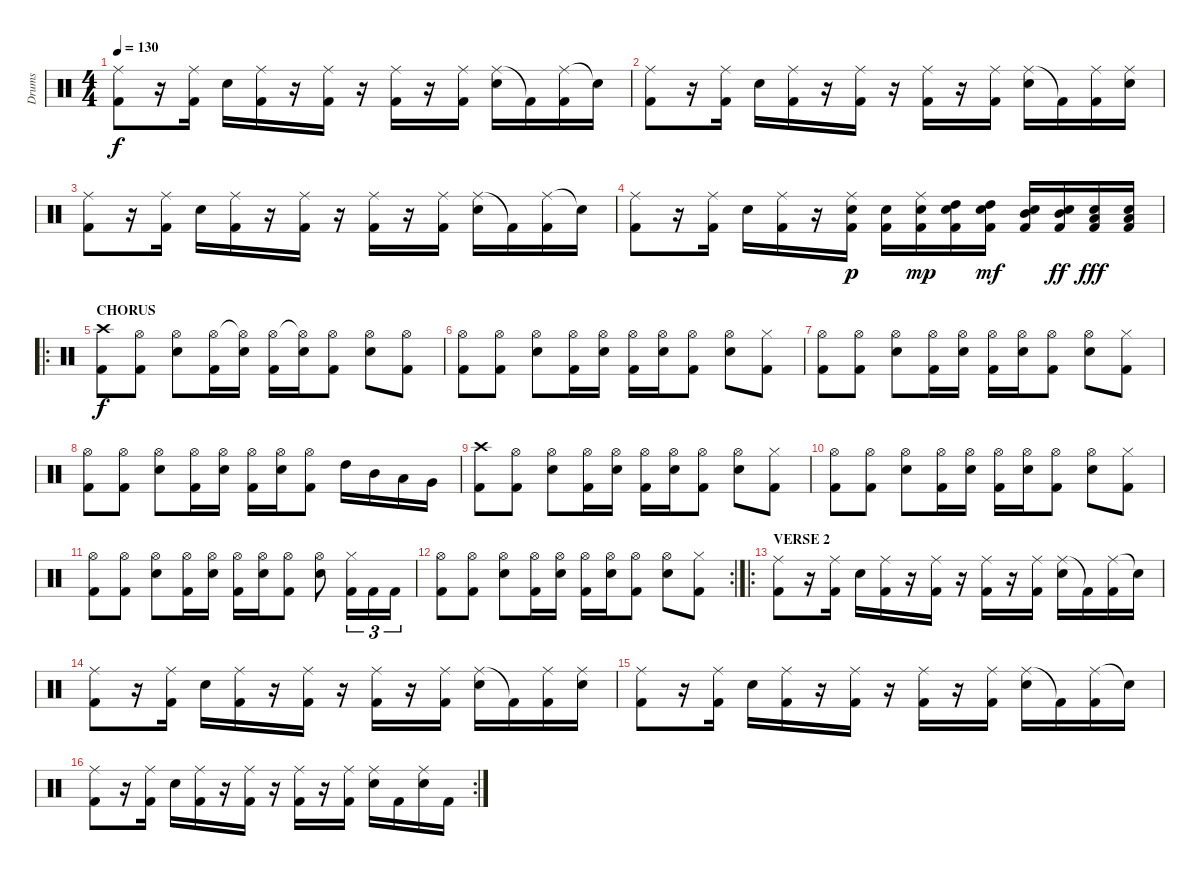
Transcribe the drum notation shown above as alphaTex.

\track ("Drums" "Drums") {instrument percussion}
\staff {score}
\articulation defaults
\ts (4 4)
\tempo 130
\clef neutral
\ks c
("Ride (middle)" "Kick (hit) 2").8{dy f} r.16 ("Ride (middle)" "Kick (hit) 2").16 "Electric Snare (hit)".16 ("Ride (middle)" "Kick (hit) 2").16 r.16 ("Ride (middle)" "Kick (hit) 2").16 r.16 ("Ride (middle)" "Kick (hit) 2").16 r.16 ("Ride (middle)" "Kick (hit) 2").16 ("Ride (middle)" "Electric Snare (hit)").16 "Kick (hit) 2"{t}.16 ("Ride (middle)" "Kick (hit) 2").16 "Snare (hit)"{t}.16 |
("Ride (middle)" "Kick (hit) 2").8 r.16 ("Ride (middle)" "Kick (hit) 2").16 "Electric Snare (hit)".16 ("Ride (middle)" "Kick (hit) 2").16 r.16 ("Ride (middle)" "Kick (hit) 2").16 r.16 ("Ride (middle)" "Kick (hit) 2").16 r.16 ("Ride (middle)" "Kick (hit) 2").16 ("Ride (middle)" "Electric Snare (hit)").16 "Kick (hit) 2"{t}.16 ("Ride (middle)" "Kick (hit) 2").16 ("Ride (middle)" "Electric Snare (hit)").16 |
("Ride (middle)" "Kick (hit) 2").8 r.16 ("Ride (middle)" "Kick (hit) 2").16 "Electric Snare (hit)".16 ("Ride (middle)" "Kick (hit) 2").16 r.16 ("Ride (middle)" "Kick (hit) 2").16 r.16 ("Ride (middle)" "Kick (hit) 2").16 r.16 ("Ride (middle)" "Kick (hit) 2").16 ("Ride (middle)" "Electric Snare (hit)").16 "Kick (hit) 2"{t}.16 ("Ride (middle)" "Kick (hit) 2").16 "Snare (hit)"{t}.16 |
("Ride (middle)" "Kick (hit) 2").8 r.16 ("Ride (middle)" "Kick (hit) 2").16 "Electric Snare (hit)".16 ("Ride (middle)" "Kick (hit) 2").16 r.16 ("Ride (middle)" "Electric Snare (hit)" "Kick (hit) 2").16{dy p} ("Electric Snare (hit)" "Kick (hit) 2").16 ("Ride (middle)" "Electric Snare (hit)" "Kick (hit) 2").16{dy mp} ("High Tom (hit)" "Electric Snare (hit)" "Kick (hit) 2").16 ("High Tom (hit)" "Electric Snare (hit)" "Kick (hit) 2").16{dy mf} ("Mid Tom (hit)" "Electric Snare (hit)" "Kick (hit) 2").16 ("Mid Tom (hit)" "Electric Snare (hit)" "Kick (hit) 2").16{dy ff} ("Low Tom (hit)" "Electric Snare (hit)" "Kick (hit) 2").16{dy fff} ("Low Tom (hit)" "Electric Snare (hit)" "Kick (hit) 2").16 |
\ro
\section ("" "CHORUS")
("Crash high (hit)" "Kick (hit) 2").8{dy f} ("Hi-Hat (open)" "Kick (hit) 2").8 ("Hi-Hat (open)" "Electric Snare (hit)").8 ("Hi-Hat (open)" "Kick (hit) 2").16 ("Hi-Hat (open)"{t} "Electric Snare (hit)").16 ("Hi-Hat (open)" "Kick (hit) 2").16 ("Hi-Hat (open)"{t} "Electric Snare (hit)").16 ("Hi-Hat (open)" "Kick (hit) 2").8 ("Hi-Hat (open)" "Electric Snare (hit)").8 ("Hi-Hat (open)" "Kick (hit) 2").8 |
("Hi-Hat (open)" "Kick (hit) 2").8 ("Hi-Hat (open)" "Kick (hit) 2").8 ("Hi-Hat (open)" "Electric Snare (hit)").8 ("Hi-Hat (open)" "Kick (hit) 2").16 ("Hi-Hat (open)" "Electric Snare (hit)").16 ("Hi-Hat (open)" "Kick (hit) 2").16 ("Hi-Hat (open)" "Electric Snare (hit)").16 ("Hi-Hat (open)" "Kick (hit) 2").8 ("Hi-Hat (open)" "Electric Snare (hit)").8 ("Hi-Hat (closed)" "Kick (hit) 2").8 |
("Hi-Hat (open)" "Kick (hit) 2").8 ("Hi-Hat (open)" "Kick (hit) 2").8 ("Hi-Hat (open)" "Electric Snare (hit)").8 ("Hi-Hat (open)" "Kick (hit) 2").16 ("Hi-Hat (open)" "Electric Snare (hit)").16 ("Hi-Hat (open)" "Kick (hit) 2").16 ("Hi-Hat (open)" "Electric Snare (hit)").16 ("Hi-Hat (open)" "Kick (hit) 2").8 ("Hi-Hat (open)" "Electric Snare (hit)").8 ("Hi-Hat (closed)" "Kick (hit) 2").8 |
("Hi-Hat (open)" "Kick (hit) 2").8 ("Hi-Hat (open)" "Kick (hit) 2").8 ("Hi-Hat (open)" "Electric Snare (hit)").8 ("Hi-Hat (open)" "Kick (hit) 2").16 ("Hi-Hat (open)" "Electric Snare (hit)").16 ("Hi-Hat (open)" "Kick (hit) 2").16 ("Hi-Hat (open)" "Electric Snare (hit)").16 ("Hi-Hat (open)" "Kick (hit) 2").8 "High Tom (hit)".16 "Mid Tom (hit)".16 "Low Tom (hit)".16 "Very Low Tom (hit)".16 |
("Crash high (hit)" "Kick (hit) 2").8 ("Hi-Hat (open)" "Kick (hit) 2").8 ("Hi-Hat (open)" "Electric Snare (hit)").8 ("Hi-Hat (open)" "Kick (hit) 2").16 ("Hi-Hat (open)" "Electric Snare (hit)").16 ("Hi-Hat (open)" "Kick (hit) 2").16 ("Hi-Hat (open)" "Electric Snare (hit)").16 ("Hi-Hat (open)" "Kick (hit) 2").8 ("Hi-Hat (open)" "Electric Snare (hit)").8 ("Hi-Hat (closed)" "Kick (hit) 2").8 |
("Hi-Hat (open)" "Kick (hit) 2").8 ("Hi-Hat (open)" "Kick (hit) 2").8 ("Hi-Hat (open)" "Electric Snare (hit)").8 ("Hi-Hat (open)" "Kick (hit) 2").16 ("Hi-Hat (open)" "Electric Snare (hit)").16 ("Hi-Hat (open)" "Kick (hit) 2").16 ("Hi-Hat (open)" "Electric Snare (hit)").16 ("Hi-Hat (open)" "Kick (hit) 2").8 ("Hi-Hat (open)" "Electric Snare (hit)").8 ("Hi-Hat (closed)" "Kick (hit) 2").8 |
("Hi-Hat (open)" "Kick (hit) 2").8 ("Hi-Hat (open)" "Kick (hit) 2").8 ("Hi-Hat (open)" "Electric Snare (hit)").8 ("Hi-Hat (open)" "Kick (hit) 2").16 ("Hi-Hat (open)" "Electric Snare (hit)").16 ("Hi-Hat (open)" "Kick (hit) 2").16 ("Hi-Hat (open)" "Electric Snare (hit)").16 ("Hi-Hat (open)" "Kick (hit) 2").8 ("Hi-Hat (open)" "Electric Snare (hit)").8 ("Hi-Hat (closed)" "Kick (hit) 2").16{tu (3 2)} "Kick (hit) 2".16{tu (3 2)} "Kick (hit) 2".16{tu (3 2)} |
\rc 2
("Hi-Hat (open)" "Kick (hit) 2").8 ("Hi-Hat (open)" "Kick (hit) 2").8 ("Hi-Hat (open)" "Electric Snare (hit)").8 ("Hi-Hat (open)" "Kick (hit) 2").16 ("Hi-Hat (open)" "Electric Snare (hit)").16 ("Hi-Hat (open)" "Kick (hit) 2").16 ("Hi-Hat (open)" "Electric Snare (hit)").16 ("Hi-Hat (open)" "Kick (hit) 2").8 ("Hi-Hat (open)" "Electric Snare (hit)").8 ("Hi-Hat (closed)" "Kick (hit) 2").8 |
\ro
\section ("" "VERSE 2")
("Ride (middle)" "Kick (hit) 2").8 r.16 ("Ride (middle)" "Kick (hit) 2").16 "Electric Snare (hit)".16 ("Ride (middle)" "Kick (hit) 2").16 r.16 ("Ride (middle)" "Kick (hit) 2").16 r.16 ("Ride (middle)" "Kick (hit) 2").16 r.16 ("Ride (middle)" "Kick (hit) 2").16 ("Ride (middle)" "Electric Snare (hit)").16 "Kick (hit) 2"{t}.16 ("Ride (middle)" "Kick (hit) 2").16 "Snare (hit)"{t}.16 |
("Ride (middle)" "Kick (hit) 2").8 r.16 ("Ride (middle)" "Kick (hit) 2").16 "Electric Snare (hit)".16 ("Ride (middle)" "Kick (hit) 2").16 r.16 ("Ride (middle)" "Kick (hit) 2").16 r.16 ("Ride (middle)" "Kick (hit) 2").16 r.16 ("Ride (middle)" "Kick (hit) 2").16 ("Ride (middle)" "Electric Snare (hit)").16 "Kick (hit) 2"{t}.16 ("Ride (middle)" "Kick (hit) 2").16 ("Ride (middle)" "Electric Snare (hit)").16 |
("Ride (middle)" "Kick (hit) 2").8 r.16 ("Ride (middle)" "Kick (hit) 2").16 "Electric Snare (hit)".16 ("Ride (middle)" "Kick (hit) 2").16 r.16 ("Ride (middle)" "Kick (hit) 2").16 r.16 ("Ride (middle)" "Kick (hit) 2").16 r.16 ("Ride (middle)" "Kick (hit) 2").16 ("Ride (middle)" "Electric Snare (hit)").16 "Kick (hit) 2"{t}.16 ("Ride (middle)" "Kick (hit) 2").16 "Snare (hit)"{t}.16 |
\rc 2
("Ride (middle)" "Kick (hit) 2").8 r.16 ("Ride (middle)" "Kick (hit) 2").16 "Electric Snare (hit)".16 ("Ride (middle)" "Kick (hit) 2").16 r.16 ("Ride (middle)" "Kick (hit) 2").16 r.16 ("Ride (middle)" "Kick (hit) 2").16 r.16 ("Ride (middle)" "Kick (hit) 2").16 ("Ride (middle)" "Electric Snare (hit)").16 "Kick (hit) 2".16 ("Ride (middle)" "Electric Snare (hit)").16 "Kick (hit) 2".16
